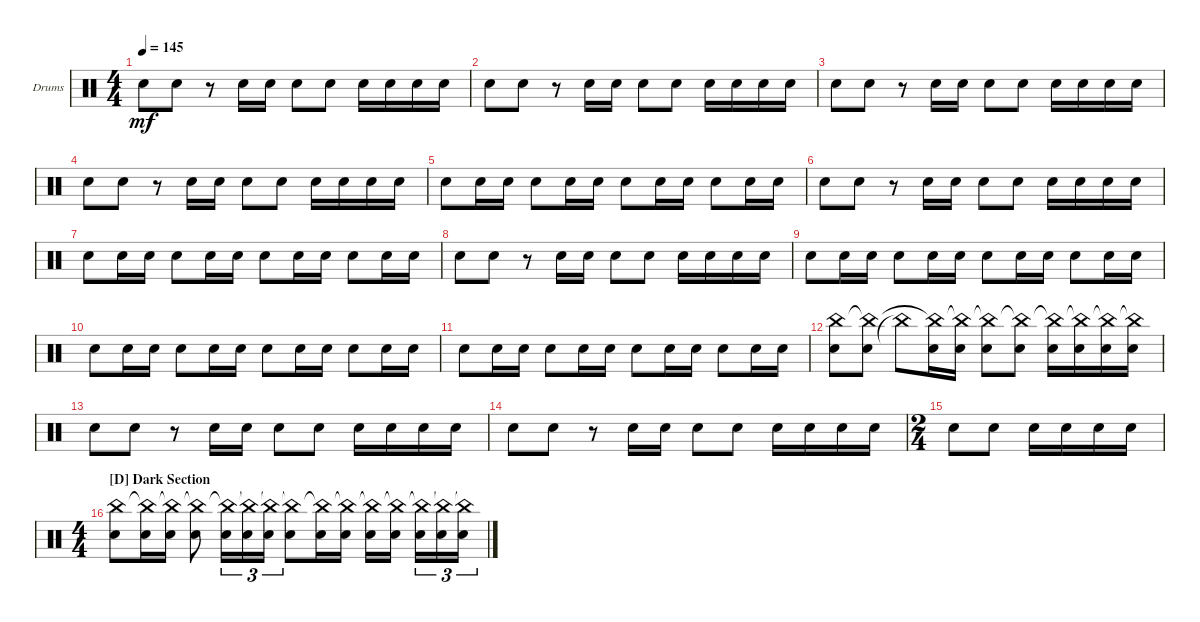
\defaultSystemsLayout 4
\bracketExtendMode groupsimilarinstruments
\firstSystemTrackNameOrientation horizontal
\otherSystemsTrackNameOrientation horizontal
\track ("Drumkit" "Drums") {instrument percussion}
\staff {score}
\articulation defaults
\ts (4 4)
\tempo 145
\clef neutral
\scale
0.333333
\ks c "Snare (hit) 2".8{dy mf} "Snare (hit) 2".8
r.8 "Snare (hit) 2".16 "Snare (hit) 2".16 "Snare (hit) 2".8 "Snare (hit) 2".8 "Snare (hit) 2".16 "Snare (hit) 2".16 "Snare (hit) 2".16 "Snare (hit) 2".16 |
\scale
0.333333 "Snare (hit) 2".8 "Snare (hit) 2".8 r.8 "Snare (hit) 2".16 "Snare (hit) 2".16 "Snare (hit) 2".8 "Snare (hit) 2".8 "Snare (hit) 2".16 "Snare (hit) 2".16 "Snare (hit) 2".16 "Snare (hit) 2".16 |
\scale
0.333333 "Snare (hit) 2".8 "Snare (hit) 2".8 r.8 "Snare (hit) 2".16 "Snare (hit) 2".16 "Snare (hit) 2".8 "Snare (hit) 2".8 "Snare (hit) 2".16 "Snare (hit) 2".16 "Snare (hit) 2".16 "Snare (hit) 2".16 |
\scale
0.333333 "Snare (hit) 2".8 "Snare (hit) 2".8 r.8 "Snare (hit) 2".16 "Snare (hit) 2".16 "Snare (hit) 2".8 "Snare (hit) 2".8 "Snare (hit) 2".16 "Snare (hit) 2".16 "Snare (hit) 2".16 "Snare (hit) 2".16 |
\scale
0.333333 "Snare (hit) 2".8 "Snare (hit) 2".16 "Snare (hit) 2".16 "Snare (hit) 2".8 "Snare (hit) 2".16 "Snare (hit) 2".16 "Snare (hit) 2".8 "Snare (hit) 2".16 "Snare (hit) 2".16 "Snare (hit) 2".8 "Snare (hit) 2".16 "Snare (hit) 2".16 |
\scale
0.333333 "Snare (hit) 2".8 "Snare (hit) 2".8 r.8 "Snare (hit) 2".16 "Snare (hit) 2".16 "Snare (hit) 2".8 "Snare (hit) 2".8 "Snare (hit) 2".16 "Snare (hit) 2".16 "Snare (hit) 2".16 "Snare (hit) 2".16 |
\scale
0.333333 "Snare (hit) 2".8 "Snare (hit) 2".16 "Snare (hit) 2".16 "Snare (hit) 2".8 "Snare (hit) 2".16 "Snare (hit) 2".16 "Snare (hit) 2".8 "Snare (hit) 2".16 "Snare (hit) 2".16 "Snare (hit) 2".8 "Snare (hit) 2".16 "Snare (hit) 2".16 |
\scale
0.333333 "Snare (hit) 2".8 "Snare (hit) 2".8 r.8 "Snare (hit) 2".16 "Snare (hit) 2".16 "Snare (hit) 2".8 "Snare (hit) 2".8 "Snare (hit) 2".16 "Snare (hit) 2".16 "Snare (hit) 2".16 "Snare (hit) 2".16 |
\scale
0.333333 "Snare (hit) 2".8 "Snare (hit) 2".16 "Snare (hit) 2".16 "Snare (hit) 2".8 "Snare (hit) 2".16 "Snare (hit) 2".16 "Snare (hit) 2".8 "Snare (hit) 2".16 "Snare (hit) 2".16 "Snare (hit) 2".8 "Snare (hit) 2".16 "Snare (hit) 2".16 |
\scale
0.333333 "Snare (hit) 2".8 "Snare (hit) 2".16 "Snare (hit) 2".16 "Snare (hit) 2".8 "Snare (hit) 2".16 "Snare (hit) 2".16 "Snare (hit) 2".8 "Snare (hit) 2".16 "Snare (hit) 2".16 "Snare (hit) 2".8 "Snare (hit) 2".16 "Snare (hit) 2".16 |
\scale
0.333333 "Snare (hit) 2".8 "Snare (hit) 2".16 "Snare (hit) 2".16 "Snare (hit) 2".8 "Snare (hit) 2".16 "Snare (hit) 2".16 "Snare (hit) 2".8 "Snare (hit) 2".16 "Snare (hit) 2".16 "Snare (hit) 2".8 "Snare (hit) 2".16 "Snare (hit) 2".16 |
\scale
0.333333 ("Snare (hit) 2" "China (hit)").8 ("Snare (hit) 2" "China (hit)"{t}).8 "China (hit)"{t}.8 ("Snare (hit) 2" "China (hit)"{t}).16 ("Snare (hit) 2" "China (hit)"{t}).16 ("Snare (hit) 2" "China (hit)"{t}).8 ("Snare (hit) 2" "China (hit)"{t}).8 ("Snare (hit) 2" "China (hit)"{t}).16 ("Snare (hit) 2" "China (hit)"{t}).16 ("Snare (hit) 2" "China (hit)"{t}).16 ("Snare (hit) 2" "China (hit)"{t}).16 |
\scale
0.333333 "Snare (hit) 2".8 "Snare (hit) 2".8 r.8 "Snare (hit) 2".16 "Snare (hit) 2".16 "Snare (hit) 2".8 "Snare (hit) 2".8 "Snare (hit) 2".16 "Snare (hit) 2".16 "Snare (hit) 2".16 "Snare (hit) 2".16 |
\scale
0.218391 "Snare (hit) 2".8 "Snare (hit) 2".8 r.8 "Snare (hit) 2".16 "Snare (hit) 2".16 "Snare (hit) 2".8 "Snare (hit) 2".8 "Snare (hit) 2".16 "Snare (hit) 2".16 "Snare (hit) 2".16 "Snare (hit) 2".16 |
\ts (2 4)
\scale
0.390805 "Snare (hit) 2".8 "Snare (hit) 2".8 "Snare (hit) 2".16 "Snare (hit) 2".16 "Snare (hit) 2".16 "Snare (hit) 2".16 |
\ts (4 4)
\section ("D" "Dark Section")
\scale
0.390805 ("Snare (hit) 2" "China (hit)").8 ("Snare (hit) 2" "China (hit)"{t}).16 ("Snare (hit) 2" "China (hit)"{t}).16 ("Snare (hit) 2" "China (hit)"{t}).8 ("Snare (hit) 2" "China (hit)"{t}).16{tu (3 2)} ("Snare (hit) 2" "China (hit)"{t}).16{tu (3 2)} ("Snare (hit) 2" "China (hit)"{t}).16{tu (3 2)} ("Snare (hit) 2" "China (hit)"{t}).8 ("Snare (hit) 2" "China (hit)"{t}).16 ("Snare (hit) 2" "China (hit)"{t}).16 ("Snare (hit) 2" "China (hit)"{t}).16 ("Snare (hit) 2" "China (hit)"{t}).16 ("Snare (hit) 2" "China (hit)"{t}).16{tu (3 2)} ("Snare (hit) 2" "China (hit)"{t}).16{tu (3 2)} ("Snare (hit) 2" "China (hit)"{t}).16{tu (3 2)}
